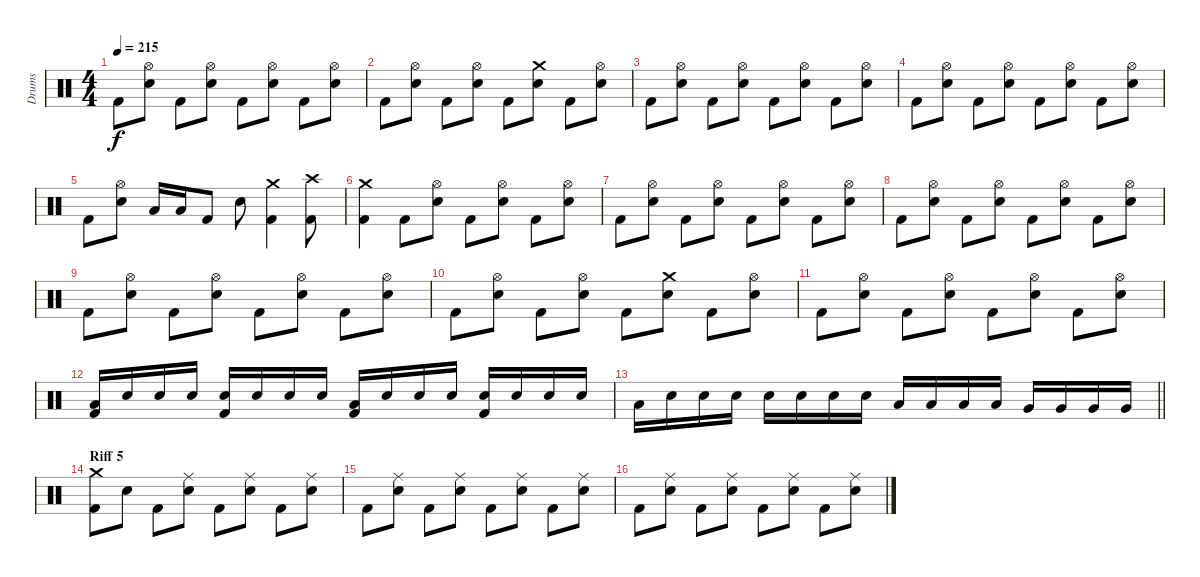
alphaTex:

\track ("Drums" "Drums") {instrument percussion}
\staff {score}
\articulation defaults
\ts (4 4)
\tempo 215
\clef neutral
\ks c "Kick (hit) 2".8{dy f}
("Hi-Hat (open)" "Electric Snare (hit)").8 "Kick (hit) 2".8 ("Electric Snare (hit)" "Hi-Hat (open)").8 "Kick (hit) 2".8 ("Hi-Hat (open)" "Electric Snare (hit)").8 "Kick (hit) 2".8 ("Electric Snare (hit)" "Hi-Hat (open)").8 |
"Kick (hit) 2".8 ("Hi-Hat (open)" "Electric Snare (hit)").8 "Kick (hit) 2".8 ("Electric Snare (hit)" "Hi-Hat (open)").8 "Kick (hit) 2".8 ("Crash medium (hit)" "Electric Snare (hit)").8 "Kick (hit) 2".8 ("Electric Snare (hit)" "Hi-Hat (open)").8 |
"Kick (hit) 2".8 ("Hi-Hat (open)" "Electric Snare (hit)").8 "Kick (hit) 2".8 ("Electric Snare (hit)" "Hi-Hat (open)").8 "Kick (hit) 2".8 ("Hi-Hat (open)" "Electric Snare (hit)").8 "Kick (hit) 2".8 ("Electric Snare (hit)" "Hi-Hat (open)").8 |
"Kick (hit) 2".8 ("Hi-Hat (open)" "Electric Snare (hit)").8 "Kick (hit) 2".8 ("Electric Snare (hit)" "Hi-Hat (open)").8 "Kick (hit) 2".8 ("Hi-Hat (open)" "Electric Snare (hit)").8 "Kick (hit) 2".8 ("Electric Snare (hit)" "Hi-Hat (open)").8 |
"Kick (hit) 2".8 ("Hi-Hat (open)" "Electric Snare (hit)").8 "Low Tom (hit)".16 "Low Tom (hit)".16 "Kick (hit) 2".8 "Electric Snare (hit)".8 ("Kick (hit) 2" "Crash medium (hit)").4 ("Kick (hit) 2" "Crash high (hit)").8 |
("Crash medium (hit)" "Kick (hit) 2").4 "Kick (hit) 2".8 ("Hi-Hat (open)" "Electric Snare (hit)").8 "Kick (hit) 2".8 ("Hi-Hat (open)" "Electric Snare (hit)").8 "Kick (hit) 2".8 ("Electric Snare (hit)" "Hi-Hat (open)").8 |
"Kick (hit) 2".8 ("Hi-Hat (open)" "Electric Snare (hit)").8 "Kick (hit) 2".8 ("Electric Snare (hit)" "Hi-Hat (open)").8 "Kick (hit) 2".8 ("Hi-Hat (open)" "Electric Snare (hit)").8 "Kick (hit) 2".8 ("Electric Snare (hit)" "Hi-Hat (open)").8 |
"Kick (hit) 2".8 ("Hi-Hat (open)" "Electric Snare (hit)").8 "Kick (hit) 2".8 ("Electric Snare (hit)" "Hi-Hat (open)").8 "Kick (hit) 2".8 ("Hi-Hat (open)" "Electric Snare (hit)").8 "Kick (hit) 2".8 ("Electric Snare (hit)" "Hi-Hat (open)").8 |
"Kick (hit) 2".8 ("Hi-Hat (open)" "Electric Snare (hit)").8 "Kick (hit) 2".8 ("Electric Snare (hit)" "Hi-Hat (open)").8 "Kick (hit) 2".8 ("Hi-Hat (open)" "Electric Snare (hit)").8 "Kick (hit) 2".8 ("Electric Snare (hit)" "Hi-Hat (open)").8 |
"Kick (hit) 2".8 ("Hi-Hat (open)" "Electric Snare (hit)").8 "Kick (hit) 2".8 ("Electric Snare (hit)" "Hi-Hat (open)").8 "Kick (hit) 2".8 ("Crash medium (hit)" "Electric Snare (hit)").8 "Kick (hit) 2".8 ("Electric Snare (hit)" "Hi-Hat (open)").8 |
"Kick (hit) 2".8 ("Hi-Hat (open)" "Electric Snare (hit)").8 "Kick (hit) 2".8 ("Electric Snare (hit)" "Hi-Hat (open)").8 "Kick (hit) 2".8 ("Hi-Hat (open)" "Electric Snare (hit)").8 "Kick (hit) 2".8 ("Electric Snare (hit)" "Hi-Hat (open)").8 |
("Low Tom (hit)" "Kick (hit) 2").16 "Electric Snare (hit)".16 "Electric Snare (hit)".16 "Electric Snare (hit)".16 ("Electric Snare (hit)" "Kick (hit) 2").16 "Electric Snare (hit)".16 "Electric Snare (hit)".16 "Electric Snare (hit)".16 ("Low Tom (hit)" "Kick (hit) 2").16 "Electric Snare (hit)".16 "Electric Snare (hit)".16 "Electric Snare (hit)".16 ("Electric Snare (hit)" "Kick (hit) 2").16 "Electric Snare (hit)".16 "Electric Snare (hit)".16 "Electric Snare (hit)".16 |
\barLineRight lightlight "Low Tom (hit)".16 "Electric Snare (hit)".16 "Electric Snare (hit)".16 "Electric Snare (hit)".16 "Electric Snare (hit)".16 "Electric Snare (hit)".16 "Electric Snare (hit)".16 "Electric Snare (hit)".16 "Low Tom (hit)".16 "Low Tom (hit)".16 "Low Tom (hit)".16 "Low Tom (hit)".16 "Very Low Tom (hit)".16 "Very Low Tom (hit)".16 "Very Low Tom (hit)".16 "Very Low Tom (hit)".16
|
\section ("" "Riff 5")
("Crash medium (hit)" "Kick (hit) 2").8 "Electric Snare (hit)".8 "Kick (hit) 2".8 ("Ride (middle)" "Electric Snare (hit)").8 "Kick (hit) 2".8 ("Ride (middle)" "Electric Snare (hit)").8 "Kick (hit) 2".8 ("Ride (middle)" "Electric Snare (hit)").8 |
"Kick (hit) 2".8 ("Ride (middle)" "Electric Snare (hit)").8 "Kick (hit) 2".8 ("Ride (middle)" "Electric Snare (hit)").8 "Kick (hit) 2".8 ("Ride (middle)" "Electric Snare (hit)").8 "Kick (hit) 2".8 ("Ride (middle)" "Electric Snare (hit)").8 |
"Kick (hit) 2".8 ("Ride (middle)" "Electric Snare (hit)").8 "Kick (hit) 2".8 ("Ride (middle)" "Electric Snare (hit)").8 "Kick (hit) 2".8 ("Ride (middle)" "Electric Snare (hit)").8 "Kick (hit) 2".8 ("Ride (middle)" "Electric Snare (hit)").8
